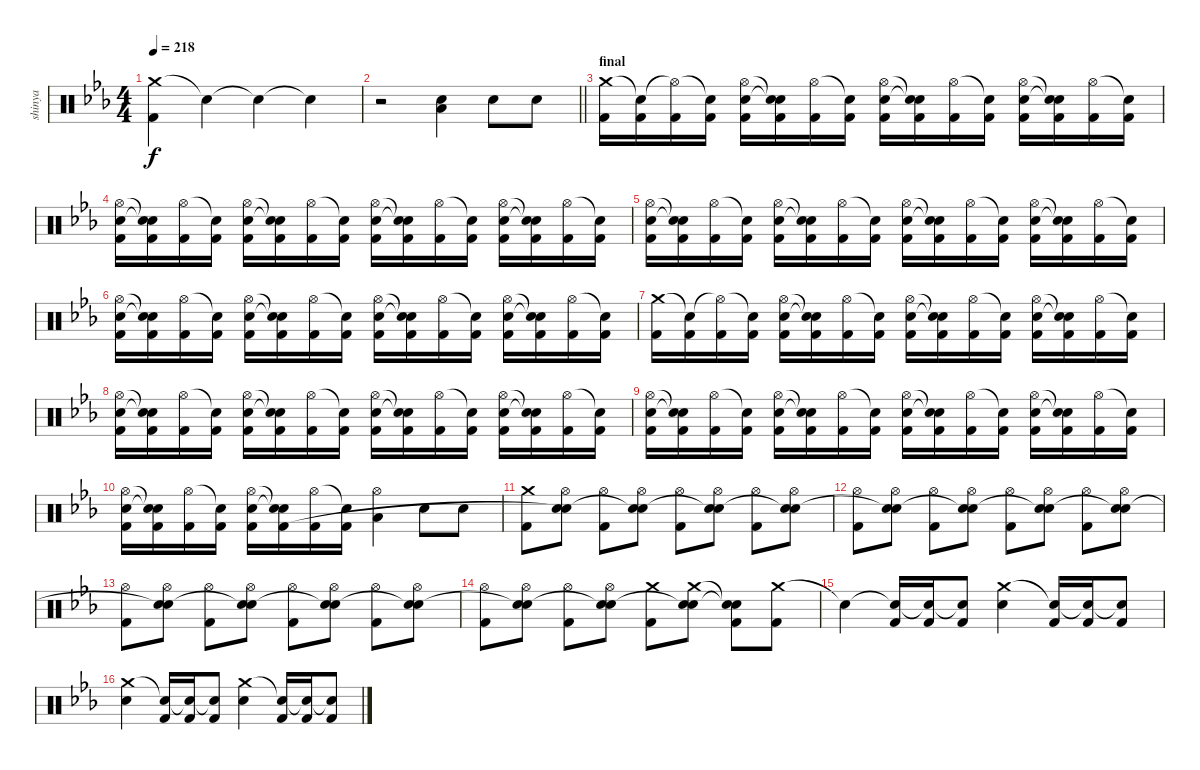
\track ("shinya" "shinya") {instrument percussion}
\staff {score}
\articulation defaults
\ts (4 4)
\tempo 218
\clef neutral
\ks eb
("Crash medium (hit)" "Kick (hit) 2").4{dy f} "Snare (hit)"{t}.4 "Snare (hit)"{t}.4 "Snare (hit)"{t}.4 |
\barLineRight lightlight
r.2 ("Electric Snare (hit)" "Low Floor Tom (hit)").4 "Electric Snare (hit)".8 "Electric Snare (hit)".8 |
\section ("" "final")
("Crash medium (hit)" "Kick (hit) 2").16 ("Snare (hit)"{t} "Kick (hit) 2").16 ("Hi-Hat (open)"{t} "Kick (hit) 2").16 ("Snare (hit)"{t} "Kick (hit) 2").16 ("Hi-Hat (open)" "Electric Snare (hit)" "Kick (hit) 2").16 ("Snare (hit)"{t} "Snare (hit)"{t} "Kick (hit) 2").16 ("Hi-Hat (open)" "Kick (hit) 2").16 ("Snare (hit)"{t} "Kick (hit) 2").16 ("Hi-Hat (open)" "Electric Snare (hit)" "Kick (hit) 2").16 ("Snare (hit)"{t} "Snare (hit)"{t} "Kick (hit) 2").16 ("Hi-Hat (open)" "Kick (hit) 2").16 ("Snare (hit)"{t} "Kick (hit) 2").16 ("Hi-Hat (open)" "Electric Snare (hit)" "Kick (hit) 2").16 ("Snare (hit)"{t} "Snare (hit)"{t} "Kick (hit) 2").16 ("Hi-Hat (open)" "Kick (hit) 2").16 ("Snare (hit)"{t} "Kick (hit) 2").16 |
("Hi-Hat (open)" "Electric Snare (hit)" "Kick (hit) 2").16 ("Snare (hit)"{t} "Snare (hit)"{t} "Kick (hit) 2").16 ("Hi-Hat (open)" "Kick (hit) 2").16 ("Snare (hit)"{t} "Kick (hit) 2").16 ("Hi-Hat (open)" "Electric Snare (hit)" "Kick (hit) 2").16 ("Snare (hit)"{t} "Snare (hit)"{t} "Kick (hit) 2").16 ("Hi-Hat (open)" "Kick (hit) 2").16 ("Snare (hit)"{t} "Kick (hit) 2").16 ("Hi-Hat (open)" "Electric Snare (hit)" "Kick (hit) 2").16 ("Snare (hit)"{t} "Snare (hit)"{t} "Kick (hit) 2").16 ("Hi-Hat (open)" "Kick (hit) 2").16 ("Snare (hit)"{t} "Kick (hit) 2").16 ("Hi-Hat (open)" "Electric Snare (hit)" "Kick (hit) 2").16 ("Snare (hit)"{t} "Snare (hit)"{t} "Kick (hit) 2").16 ("Hi-Hat (open)" "Kick (hit) 2").16 ("Snare (hit)"{t} "Kick (hit) 2").16 |
("Hi-Hat (open)" "Electric Snare (hit)" "Kick (hit) 2").16 ("Snare (hit)"{t} "Snare (hit)"{t} "Kick (hit) 2").16 ("Hi-Hat (open)" "Kick (hit) 2").16 ("Snare (hit)"{t} "Kick (hit) 2").16 ("Hi-Hat (open)" "Electric Snare (hit)" "Kick (hit) 2").16 ("Snare (hit)"{t} "Snare (hit)"{t} "Kick (hit) 2").16 ("Hi-Hat (open)" "Kick (hit) 2").16 ("Snare (hit)"{t} "Kick (hit) 2").16 ("Hi-Hat (open)" "Electric Snare (hit)" "Kick (hit) 2").16 ("Snare (hit)"{t} "Snare (hit)"{t} "Kick (hit) 2").16 ("Hi-Hat (open)" "Kick (hit) 2").16 ("Snare (hit)"{t} "Kick (hit) 2").16 ("Hi-Hat (open)" "Electric Snare (hit)" "Kick (hit) 2").16 ("Snare (hit)"{t} "Snare (hit)"{t} "Kick (hit) 2").16 ("Hi-Hat (open)" "Kick (hit) 2").16 ("Snare (hit)"{t} "Kick (hit) 2").16 |
("Hi-Hat (open)" "Electric Snare (hit)" "Kick (hit) 2").16 ("Snare (hit)"{t} "Snare (hit)"{t} "Kick (hit) 2").16 ("Hi-Hat (open)" "Kick (hit) 2").16 ("Snare (hit)"{t} "Kick (hit) 2").16 ("Hi-Hat (open)" "Electric Snare (hit)" "Kick (hit) 2").16 ("Snare (hit)"{t} "Snare (hit)"{t} "Kick (hit) 2").16 ("Hi-Hat (open)" "Kick (hit) 2").16 ("Snare (hit)"{t} "Kick (hit) 2").16 ("Hi-Hat (open)" "Electric Snare (hit)" "Kick (hit) 2").16 ("Snare (hit)"{t} "Snare (hit)"{t} "Kick (hit) 2").16 ("Hi-Hat (open)" "Kick (hit) 2").16 ("Snare (hit)"{t} "Kick (hit) 2").16 ("Hi-Hat (open)" "Electric Snare (hit)" "Kick (hit) 2").16 ("Snare (hit)"{t} "Snare (hit)"{t} "Kick (hit) 2").16 ("Hi-Hat (open)" "Kick (hit) 2").16 ("Snare (hit)"{t} "Kick (hit) 2").16 |
("Crash medium (hit)" "Kick (hit) 2").16 ("Snare (hit)"{t} "Kick (hit) 2").16 ("Hi-Hat (open)"{t} "Kick (hit) 2").16 ("Snare (hit)"{t} "Kick (hit) 2").16 ("Hi-Hat (open)" "Electric Snare (hit)" "Kick (hit) 2").16 ("Snare (hit)"{t} "Snare (hit)"{t} "Kick (hit) 2").16 ("Hi-Hat (open)" "Kick (hit) 2").16 ("Snare (hit)"{t} "Kick (hit) 2").16 ("Hi-Hat (open)" "Electric Snare (hit)" "Kick (hit) 2").16 ("Snare (hit)"{t} "Snare (hit)"{t} "Kick (hit) 2").16 ("Hi-Hat (open)" "Kick (hit) 2").16 ("Snare (hit)"{t} "Kick (hit) 2").16 ("Hi-Hat (open)" "Electric Snare (hit)" "Kick (hit) 2").16 ("Snare (hit)"{t} "Snare (hit)"{t} "Kick (hit) 2").16 ("Hi-Hat (open)" "Kick (hit) 2").16 ("Snare (hit)"{t} "Kick (hit) 2").16 |
("Hi-Hat (open)" "Electric Snare (hit)" "Kick (hit) 2").16 ("Snare (hit)"{t} "Snare (hit)"{t} "Kick (hit) 2").16 ("Hi-Hat (open)" "Kick (hit) 2").16 ("Snare (hit)"{t} "Kick (hit) 2").16 ("Hi-Hat (open)" "Electric Snare (hit)" "Kick (hit) 2").16 ("Snare (hit)"{t} "Snare (hit)"{t} "Kick (hit) 2").16 ("Hi-Hat (open)" "Kick (hit) 2").16 ("Snare (hit)"{t} "Kick (hit) 2").16 ("Hi-Hat (open)" "Electric Snare (hit)" "Kick (hit) 2").16 ("Snare (hit)"{t} "Snare (hit)"{t} "Kick (hit) 2").16 ("Hi-Hat (open)" "Kick (hit) 2").16 ("Snare (hit)"{t} "Kick (hit) 2").16 ("Hi-Hat (open)" "Electric Snare (hit)" "Kick (hit) 2").16 ("Snare (hit)"{t} "Snare (hit)"{t} "Kick (hit) 2").16 ("Hi-Hat (open)" "Kick (hit) 2").16 ("Snare (hit)"{t} "Kick (hit) 2").16 |
("Hi-Hat (open)" "Electric Snare (hit)" "Kick (hit) 2").16 ("Snare (hit)"{t} "Snare (hit)"{t} "Kick (hit) 2").16 ("Hi-Hat (open)" "Kick (hit) 2").16 ("Snare (hit)"{t} "Kick (hit) 2").16 ("Hi-Hat (open)" "Electric Snare (hit)" "Kick (hit) 2").16 ("Snare (hit)"{t} "Snare (hit)"{t} "Kick (hit) 2").16 ("Hi-Hat (open)" "Kick (hit) 2").16 ("Snare (hit)"{t} "Kick (hit) 2").16 ("Hi-Hat (open)" "Electric Snare (hit)" "Kick (hit) 2").16 ("Snare (hit)"{t} "Snare (hit)"{t} "Kick (hit) 2").16 ("Hi-Hat (open)" "Kick (hit) 2").16 ("Snare (hit)"{t} "Kick (hit) 2").16 ("Hi-Hat (open)" "Electric Snare (hit)" "Kick (hit) 2").16 ("Snare (hit)"{t} "Snare (hit)"{t} "Kick (hit) 2").16 ("Hi-Hat (open)" "Kick (hit) 2").16 ("Snare (hit)"{t} "Kick (hit) 2").16 |
("Hi-Hat (open)" "Electric Snare (hit)" "Kick (hit) 2").16 ("Snare (hit)"{t} "Snare (hit)"{t} "Kick (hit) 2").16 ("Hi-Hat (open)" "Kick (hit) 2").16 ("Snare (hit)"{t} "Kick (hit) 2").16 ("Hi-Hat (open)" "Electric Snare (hit)" "Kick (hit) 2").16 ("Snare (hit)"{t} "Snare (hit)"{t} "Kick (hit) 2").16 ("Hi-Hat (open)" "Kick (hit) 2").16 ("Snare (hit)"{t} "Kick (hit) 2").16 ("Hi-Hat (open)" "Low Floor Tom (hit)").4 "Electric Snare (hit)".8 "Electric Snare (hit)".8 |
("Crash medium (hit)" "Kick (hit) 2").8 ("Hi-Hat (open)" "Electric Snare (hit)" "Snare (hit)"{t}).8 ("Hi-Hat (open)" "Kick (hit) 2").8 ("Hi-Hat (open)" "Electric Snare (hit)" "Snare (hit)"{t}).8 ("Hi-Hat (open)" "Kick (hit) 2").8 ("Hi-Hat (open)" "Electric Snare (hit)" "Snare (hit)"{t}).8 ("Hi-Hat (open)" "Kick (hit) 2").8 ("Hi-Hat (open)" "Electric Snare (hit)" "Snare (hit)"{t}).8 |
("Hi-Hat (open)" "Kick (hit) 2").8 ("Hi-Hat (open)" "Electric Snare (hit)" "Snare (hit)"{t}).8 ("Hi-Hat (open)" "Kick (hit) 2").8 ("Hi-Hat (open)" "Electric Snare (hit)" "Snare (hit)"{t}).8 ("Hi-Hat (open)" "Kick (hit) 2").8 ("Hi-Hat (open)" "Electric Snare (hit)" "Snare (hit)"{t}).8 ("Hi-Hat (open)" "Kick (hit) 2").8 ("Hi-Hat (open)" "Electric Snare (hit)" "Snare (hit)"{t}).8 |
("Hi-Hat (open)" "Kick (hit) 2").8 ("Hi-Hat (open)" "Electric Snare (hit)" "Snare (hit)"{t}).8 ("Hi-Hat (open)" "Kick (hit) 2").8 ("Hi-Hat (open)" "Electric Snare (hit)" "Snare (hit)"{t}).8 ("Hi-Hat (open)" "Kick (hit) 2").8 ("Hi-Hat (open)" "Electric Snare (hit)" "Snare (hit)"{t}).8 ("Hi-Hat (open)" "Kick (hit) 2").8 ("Hi-Hat (open)" "Electric Snare (hit)" "Snare (hit)"{t}).8 |
("Hi-Hat (open)" "Kick (hit) 2").8 ("Hi-Hat (open)" "Electric Snare (hit)" "Snare (hit)"{t}).8 ("Hi-Hat (open)" "Kick (hit) 2").8 ("Hi-Hat (open)" "Electric Snare (hit)" "Snare (hit)"{t}).8 ("Crash medium (hit)" "Kick (hit) 2").8 ("Crash medium (hit)" "Electric Snare (hit)" "Snare (hit)"{t}).8 ("Snare (hit)"{t} "Snare (hit)"{t} "Kick (hit) 2").8 ("Crash medium (hit)" "Kick (hit) 2").8 |
"Snare (hit)"{t}.4 ("Snare (hit)"{t} "Kick (hit) 2").16 ("Snare (hit)"{t} "Kick (hit) 2").16 ("Snare (hit)"{t} "Kick (hit) 2").8 ("Crash medium (hit)" "Electric Snare (hit)").4 ("Snare (hit)"{t} "Kick (hit) 2").16 ("Snare (hit)"{t} "Kick (hit) 2").16 ("Snare (hit)"{t} "Kick (hit) 2").8 |
("Crash medium (hit)" "Electric Snare (hit)").4 ("Snare (hit)"{t} "Kick (hit) 2").16 ("Snare (hit)"{t} "Kick (hit) 2").16 ("Snare (hit)"{t} "Kick (hit) 2").8 ("Crash medium (hit)" "Electric Snare (hit)").4 ("Snare (hit)"{t} "Kick (hit) 2").16 ("Snare (hit)"{t} "Kick (hit) 2").16 ("Snare (hit)"{t} "Kick (hit) 2").8
